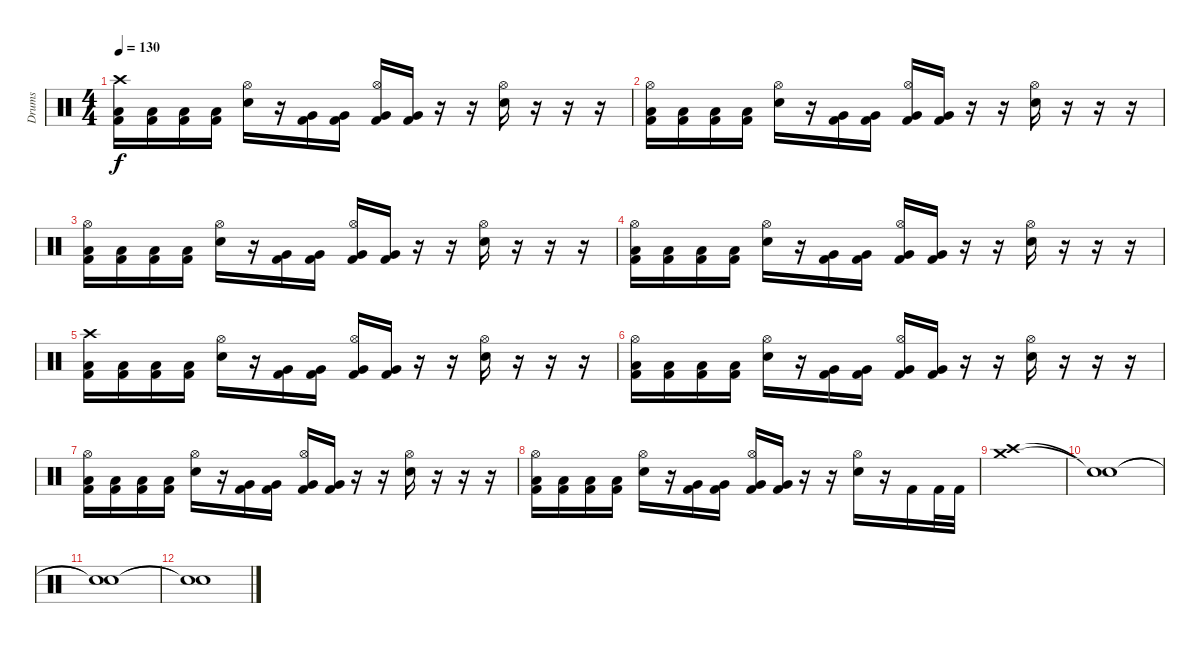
\track ("Drums" "Drums") {instrument percussion}
\staff {score}
\articulation defaults
\ts (4 4)
\tempo 130
\clef neutral
\ks c
("Crash high (hit)" "Low Tom (hit)" "Kick (hit) 2").16{dy f} ("Low Tom (hit)" "Kick (hit) 2").16 ("Low Tom (hit)" "Kick (hit) 2").16 ("Low Tom (hit)" "Kick (hit) 2").16 ("Hi-Hat (open)" "Electric Snare (hit)").16 r.16 ("Very Low Tom (hit)" "Kick (hit) 2").16 ("Very Low Tom (hit)" "Kick (hit) 2").16 ("Hi-Hat (open)" "Very Low Tom (hit)" "Kick (hit) 2").16 ("Very Low Tom (hit)" "Kick (hit) 2").16 r.16 r.16 ("Hi-Hat (open)" "Electric Snare (hit)").16 r.16 r.16 r.16 |
("Hi-Hat (open)" "Low Tom (hit)" "Kick (hit) 2").16 ("Low Tom (hit)" "Kick (hit) 2").16 ("Low Tom (hit)" "Kick (hit) 2").16 ("Low Tom (hit)" "Kick (hit) 2").16 ("Hi-Hat (open)" "Electric Snare (hit)").16 r.16 ("Very Low Tom (hit)" "Kick (hit) 2").16 ("Very Low Tom (hit)" "Kick (hit) 2").16 ("Hi-Hat (open)" "Very Low Tom (hit)" "Kick (hit) 2").16 ("Very Low Tom (hit)" "Kick (hit) 2").16 r.16 r.16 ("Hi-Hat (open)" "Electric Snare (hit)").16 r.16 r.16 r.16 |
("Hi-Hat (open)" "Low Tom (hit)" "Kick (hit) 2").16 ("Low Tom (hit)" "Kick (hit) 2").16 ("Low Tom (hit)" "Kick (hit) 2").16 ("Low Tom (hit)" "Kick (hit) 2").16 ("Hi-Hat (open)" "Electric Snare (hit)").16 r.16 ("Very Low Tom (hit)" "Kick (hit) 2").16 ("Very Low Tom (hit)" "Kick (hit) 2").16 ("Hi-Hat (open)" "Very Low Tom (hit)" "Kick (hit) 2").16 ("Very Low Tom (hit)" "Kick (hit) 2").16 r.16 r.16 ("Hi-Hat (open)" "Electric Snare (hit)").16 r.16 r.16 r.16 |
("Hi-Hat (open)" "Low Tom (hit)" "Kick (hit) 2").16 ("Low Tom (hit)" "Kick (hit) 2").16 ("Low Tom (hit)" "Kick (hit) 2").16 ("Low Tom (hit)" "Kick (hit) 2").16 ("Hi-Hat (open)" "Electric Snare (hit)").16 r.16 ("Very Low Tom (hit)" "Kick (hit) 2").16 ("Very Low Tom (hit)" "Kick (hit) 2").16 ("Hi-Hat (open)" "Very Low Tom (hit)" "Kick (hit) 2").16 ("Very Low Tom (hit)" "Kick (hit) 2").16 r.16 r.16 ("Hi-Hat (open)" "Electric Snare (hit)").16 r.16 r.16 r.16 |
("Crash high (hit)" "Low Tom (hit)" "Kick (hit) 2").16 ("Low Tom (hit)" "Kick (hit) 2").16 ("Low Tom (hit)" "Kick (hit) 2").16 ("Low Tom (hit)" "Kick (hit) 2").16 ("Hi-Hat (open)" "Electric Snare (hit)").16 r.16 ("Very Low Tom (hit)" "Kick (hit) 2").16 ("Very Low Tom (hit)" "Kick (hit) 2").16 ("Hi-Hat (open)" "Very Low Tom (hit)" "Kick (hit) 2").16 ("Very Low Tom (hit)" "Kick (hit) 2").16 r.16 r.16 ("Hi-Hat (open)" "Electric Snare (hit)").16 r.16 r.16 r.16 |
("Hi-Hat (open)" "Low Tom (hit)" "Kick (hit) 2").16 ("Low Tom (hit)" "Kick (hit) 2").16 ("Low Tom (hit)" "Kick (hit) 2").16 ("Low Tom (hit)" "Kick (hit) 2").16 ("Hi-Hat (open)" "Electric Snare (hit)").16 r.16 ("Very Low Tom (hit)" "Kick (hit) 2").16 ("Very Low Tom (hit)" "Kick (hit) 2").16 ("Hi-Hat (open)" "Very Low Tom (hit)" "Kick (hit) 2").16 ("Very Low Tom (hit)" "Kick (hit) 2").16 r.16 r.16 ("Hi-Hat (open)" "Electric Snare (hit)").16 r.16 r.16 r.16 |
("Hi-Hat (open)" "Low Tom (hit)" "Kick (hit) 2").16 ("Low Tom (hit)" "Kick (hit) 2").16 ("Low Tom (hit)" "Kick (hit) 2").16 ("Low Tom (hit)" "Kick (hit) 2").16 ("Hi-Hat (open)" "Electric Snare (hit)").16 r.16 ("Very Low Tom (hit)" "Kick (hit) 2").16 ("Very Low Tom (hit)" "Kick (hit) 2").16 ("Hi-Hat (open)" "Very Low Tom (hit)" "Kick (hit) 2").16 ("Very Low Tom (hit)" "Kick (hit) 2").16 r.16 r.16 ("Hi-Hat (open)" "Electric Snare (hit)").16 r.16 r.16 r.16 |
("Hi-Hat (open)" "Low Tom (hit)" "Kick (hit) 2").16 ("Low Tom (hit)" "Kick (hit) 2").16 ("Low Tom (hit)" "Kick (hit) 2").16 ("Low Tom (hit)" "Kick (hit) 2").16 ("Hi-Hat (open)" "Electric Snare (hit)").16 r.16 ("Very Low Tom (hit)" "Kick (hit) 2").16 ("Very Low Tom (hit)" "Kick (hit) 2").16 ("Hi-Hat (open)" "Very Low Tom (hit)" "Kick (hit) 2").16 ("Very Low Tom (hit)" "Kick (hit) 2").16 r.16 r.16 ("Hi-Hat (open)" "Electric Snare (hit)").16 r.16 "Kick (hit) 2".16 "Kick (hit) 2".32 "Kick (hit) 2".32 |
("Crash medium (hit)" "Crash high (hit)").1 |
("Snare (hit)"{t} "Snare (hit)"{t}).1 |
("Snare (hit)"{t} "Snare (hit)"{t}).1 |
("Snare (hit)"{t} "Snare (hit)"{t}).1
